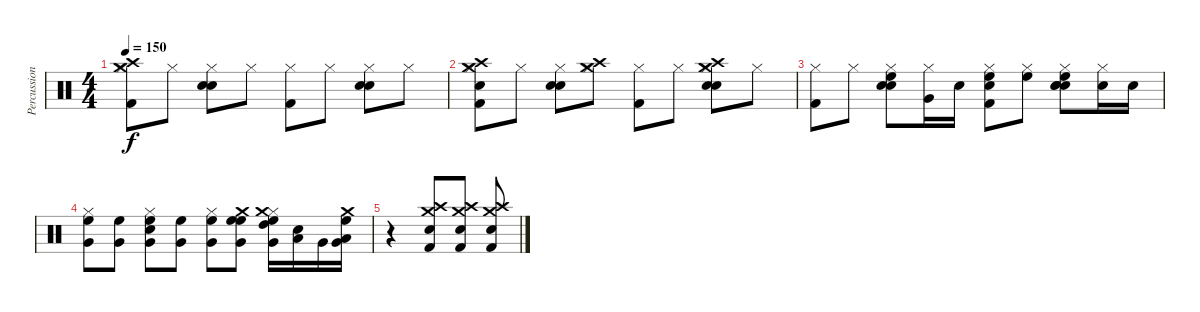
\track ("Percussion" "Percussion") {instrument percussion}
\staff {score}
\articulation defaults
\ts (4 4)
\tempo 150
\clef neutral
\ks c
("Hi-Hat (closed)" "Kick (hit) 2" "Crash medium (hit)" "Crash high (hit)").8{dy f} "Hi-Hat (closed)".8 ("Hi-Hat (closed)" "Snare (hit) 2" "Electric Snare (hit)").8 "Hi-Hat (closed)".8 ("Hi-Hat (closed)" "Kick (hit) 2").8 "Hi-Hat (closed)".8 ("Hi-Hat (closed)" "Snare (hit) 2" "Electric Snare (hit)").8 "Hi-Hat (closed)".8 |
("Hi-Hat (closed)" "Kick (hit) 2" "Crash high (hit)" "Snare (hit) 2" "Crash medium (hit)").8 "Hi-Hat (closed)".8 ("Hi-Hat (closed)" "Snare (hit) 2" "Electric Snare (hit)").8 ("Hi-Hat (closed)" "Crash high (hit)" "Crash medium (hit)").8 ("Hi-Hat (closed)" "Kick (hit) 2").8 "Hi-Hat (closed)".8 ("Hi-Hat (closed)" "Snare (hit) 2" "Electric Snare (hit)" "Crash high (hit)" "Crash medium (hit)").8 "Hi-Hat (closed)".8 |
("Hi-Hat (closed)" "Kick (hit) 2").8 "Hi-Hat (closed)".8 ("Hi-Hat (closed)" "Snare (hit) 2" "Electric Snare (hit)" "High Floor Tom (hit)").8 ("Hi-Hat (closed)" "Very Low Tom (hit)").16 "Snare (hit) 2".16 ("Hi-Hat (closed)" "Kick (hit) 2" "Snare (hit) 2" "High Floor Tom (hit)").8 ("Hi-Hat (closed)" "High Floor Tom (hit)").8 ("Hi-Hat (closed)" "Snare (hit) 2" "Electric Snare (hit)" "Snare (hit) 2" "High Floor Tom (hit)").8 ("Hi-Hat (closed)" "Snare (hit) 2").16 "Snare (hit) 2".16 |
("Hi-Hat (closed)" "High Floor Tom (hit)" "Very Low Tom (hit)").8 ("High Floor Tom (hit)" "Very Low Tom (hit)").8 ("Hi-Hat (closed)" "High Floor Tom (hit)" "Snare (hit) 2" "Very Low Tom (hit)").8 ("High Floor Tom (hit)" "Very Low Tom (hit)").8 ("Hi-Hat (closed)" "High Floor Tom (hit)" "Very Low Tom (hit)").8 ("High Floor Tom (hit)" "High Floor Tom (hit)" "Very Low Tom (hit)" "Crash medium (hit)").8 ("Hi-Hat (closed)" "High Floor Tom (hit)" "High Tom (hit)" "Very Low Tom (hit)" "Crash medium (hit)").16 ("Low Tom (hit)" "Snare (hit) 2").16 "Very Low Tom (hit)".16 ("High Floor Tom (hit)" "Low Tom (hit)" "Very Low Tom (hit)" "Crash medium (hit)").16 |
r.4 ("Kick (hit) 2" "Snare (hit) 2" "Crash high (hit)" "Crash medium (hit)").8 ("Kick (hit) 2" "Snare (hit) 2" "Crash high (hit)" "Crash medium (hit)").8 ("Kick (hit) 2" "Snare (hit) 2" "Crash high (hit)" "Crash medium (hit)").8
